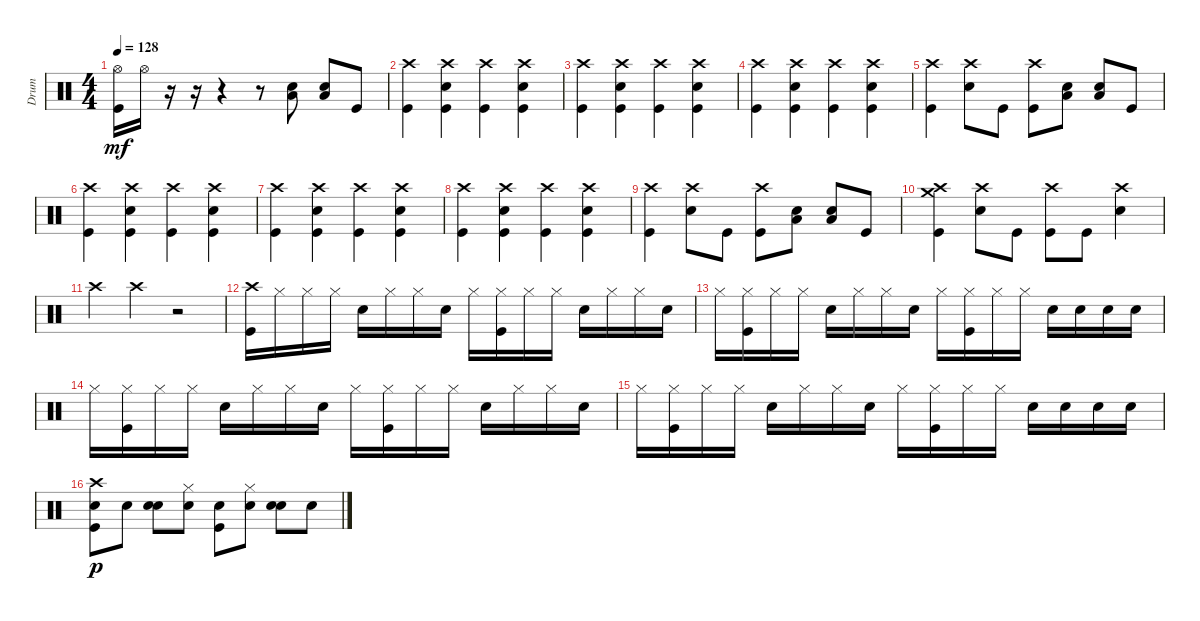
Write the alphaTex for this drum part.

\track ("Drum" "Drum") {instrument percussion}
\staff {score}
\articulation defaults
\ts (4 4)
\tempo 128
\clef neutral
\ks c
("Hi-Hat (open)" "Kick (hit)").16{dy mf} "Hi-Hat (open)".16 r.16 r.16 r.4 r.8 ("Snare (hit) 2" "Low Floor Tom (hit)").8 ("Snare (hit) 2" "Low Floor Tom (hit)").8 "Kick (hit)".8 |
("Crash high (hit)" "Kick (hit)").4 ("Crash high (hit)" "Kick (hit)" "Snare (hit) 2").4 ("Crash high (hit)" "Kick (hit)").4 ("Crash high (hit)" "Kick (hit)" "Snare (hit) 2").4 |
("Crash high (hit)" "Kick (hit)").4 ("Crash high (hit)" "Kick (hit)" "Snare (hit) 2").4 ("Crash high (hit)" "Kick (hit)").4 ("Crash high (hit)" "Kick (hit)" "Snare (hit) 2").4 |
("Crash high (hit)" "Kick (hit)").4 ("Crash high (hit)" "Kick (hit)" "Snare (hit) 2").4 ("Crash high (hit)" "Kick (hit)").4 ("Crash high (hit)" "Kick (hit)" "Snare (hit) 2").4 |
("Crash high (hit)" "Kick (hit)").4 ("Crash high (hit)" "Snare (hit) 2").8 "Kick (hit)".8 ("Crash high (hit)" "Kick (hit)").8 ("Snare (hit) 2" "Low Floor Tom (hit)").8 ("Snare (hit) 2" "Low Floor Tom (hit)").8 "Kick (hit)".8 |
("Crash high (hit)" "Kick (hit)").4 ("Crash high (hit)" "Kick (hit)" "Snare (hit) 2").4 ("Crash high (hit)" "Kick (hit)").4 ("Crash high (hit)" "Kick (hit)" "Snare (hit) 2").4 |
("Crash high (hit)" "Kick (hit)").4 ("Crash high (hit)" "Kick (hit)" "Snare (hit) 2").4 ("Crash high (hit)" "Kick (hit)").4 ("Crash high (hit)" "Kick (hit)" "Snare (hit) 2").4 |
("Crash high (hit)" "Kick (hit)").4 ("Crash high (hit)" "Kick (hit)" "Snare (hit) 2").4 ("Crash high (hit)" "Kick (hit)").4 ("Crash high (hit)" "Kick (hit)" "Snare (hit) 2").4 |
("Crash high (hit)" "Kick (hit)").4 ("Crash high (hit)" "Snare (hit) 2").8 "Kick (hit)".8 ("Crash high (hit)" "Kick (hit)").8 ("Snare (hit) 2" "Low Floor Tom (hit)").8 ("Snare (hit) 2" "Low Floor Tom (hit)").8 "Kick (hit)".8 |
("Kick (hit)" "Crash high (hit)" "Crash medium (hit)").4 ("Crash high (hit)" "Snare (hit) 2").8 "Kick (hit)".8 ("Kick (hit)" "Crash high (hit)").8 "Kick (hit)".8 ("Crash high (hit)" "Snare (hit) 2").4 |
"Crash high (hit)".4 "Crash high (hit)".4 r.2 |
("Crash high (hit)" "Kick (hit)").16 "Hi-Hat (closed)".16 "Hi-Hat (closed)".16 "Hi-Hat (closed)".16 "Snare (hit) 2".16 "Hi-Hat (closed)".16 "Hi-Hat (closed)".16 "Snare (hit) 2".16 "Hi-Hat (closed)".16 ("Hi-Hat (closed)" "Kick (hit)").16 "Hi-Hat (closed)".16 "Hi-Hat (closed)".16 "Snare (hit) 2".16 "Hi-Hat (closed)".16 "Hi-Hat (closed)".16 "Snare (hit) 2".16 |
"Hi-Hat (closed)".16 ("Hi-Hat (closed)" "Kick (hit)").16 "Hi-Hat (closed)".16 "Hi-Hat (closed)".16 "Snare (hit) 2".16 "Hi-Hat (closed)".16 "Hi-Hat (closed)".16 "Snare (hit) 2".16 "Hi-Hat (closed)".16 ("Hi-Hat (closed)" "Kick (hit)").16 "Hi-Hat (closed)".16 "Hi-Hat (closed)".16 "Snare (hit) 2".16 "Snare (hit) 2".16 "Snare (hit) 2".16 "Snare (hit) 2".16 |
"Hi-Hat (closed)".16 ("Hi-Hat (closed)" "Kick (hit)").16 "Hi-Hat (closed)".16 "Hi-Hat (closed)".16 "Snare (hit) 2".16 "Hi-Hat (closed)".16 "Hi-Hat (closed)".16 "Snare (hit) 2".16 "Hi-Hat (closed)".16 ("Hi-Hat (closed)" "Kick (hit)").16 "Hi-Hat (closed)".16 "Hi-Hat (closed)".16 "Snare (hit) 2".16 "Hi-Hat (closed)".16 "Hi-Hat (closed)".16 "Snare (hit) 2".16 |
"Hi-Hat (closed)".16 ("Hi-Hat (closed)" "Kick (hit)").16 "Hi-Hat (closed)".16 "Hi-Hat (closed)".16 "Snare (hit) 2".16 "Hi-Hat (closed)".16 "Hi-Hat (closed)".16 "Snare (hit) 2".16 "Hi-Hat (closed)".16 ("Hi-Hat (closed)" "Kick (hit)").16 "Hi-Hat (closed)".16 "Hi-Hat (closed)".16 "Snare (hit) 2".16 "Snare (hit) 2".16 "Snare (hit) 2".16 "Snare (hit) 2".16 |
("Crash high (hit)" "Snare (hit) 2" "Kick (hit)").8{dy p} "Snare (hit) 2".8 ("Snare (hit) 2" "Snare (hit) 2").8 ("Snare (hit) 2" "Hi-Hat (closed)").8 ("Snare (hit) 2" "Kick (hit)").8 ("Snare (hit) 2" "Hi-Hat (closed)").8 ("Snare (hit) 2" "Snare (hit) 2").8 "Snare (hit) 2".8
